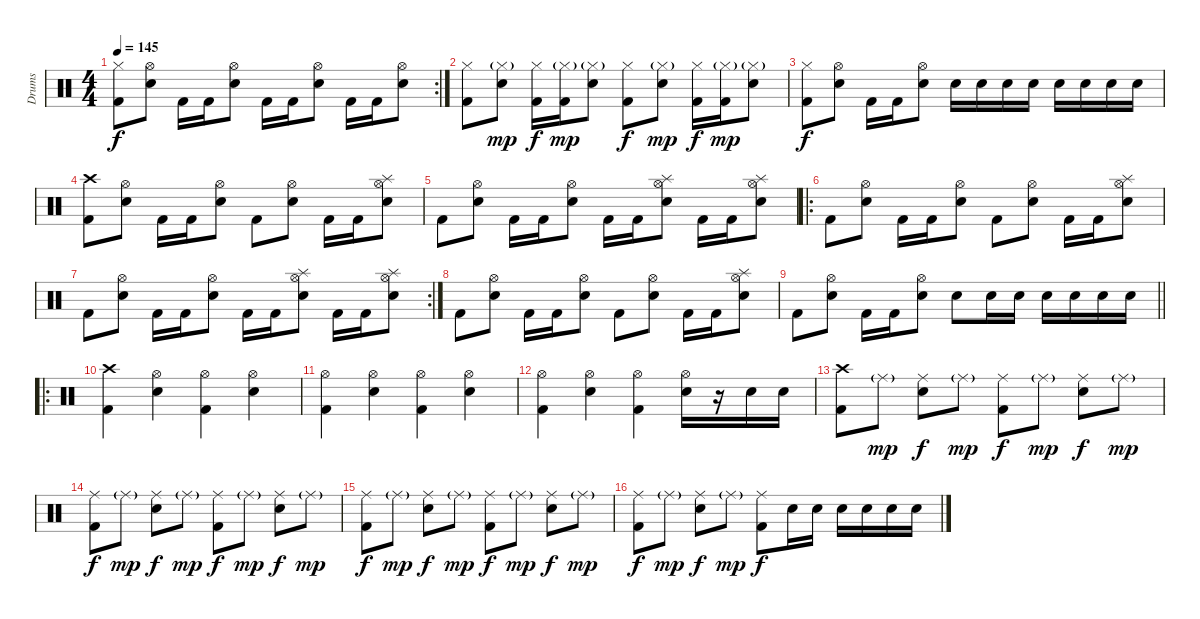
\track ("Drums" "Drums") {instrument percussion}
\staff {score}
\articulation defaults
\rc 2
\ts (4 4)
\tempo 145
\clef neutral
\ks c
("Kick (hit) 2" "Hi-Hat (closed)").8{dy f} ("Snare (hit) 2" "Hi-Hat (open)").8 "Kick (hit) 2".16 "Kick (hit) 2".16 ("Snare (hit) 2" "Hi-Hat (open)").8 "Kick (hit) 2".16 "Kick (hit) 2".16 ("Snare (hit) 2" "Hi-Hat (open)").8 "Kick (hit) 2".16 "Kick (hit) 2".16 ("Snare (hit) 2" "Hi-Hat (open)").8 |
("Kick (hit) 2" "Hi-Hat (closed)").8 ("Snare (hit) 2" "Hi-Hat (closed)"{g}).8{dy mp} ("Kick (hit) 2" "Hi-Hat (closed)").16{dy f} ("Kick (hit) 2" "Hi-Hat (closed)"{g}).16{dy mp} ("Snare (hit) 2" "Hi-Hat (closed)"{g}).8 ("Kick (hit) 2" "Hi-Hat (closed)").8{dy f} ("Snare (hit) 2" "Hi-Hat (closed)"{g}).8{dy mp} ("Kick (hit) 2" "Hi-Hat (closed)").16{dy f} ("Kick (hit) 2" "Hi-Hat (closed)"{g}).16{dy mp} ("Snare (hit) 2" "Hi-Hat (closed)"{g}).8 |
("Kick (hit) 2" "Hi-Hat (closed)").8{dy f} ("Snare (hit) 2" "Hi-Hat (open)").8 "Kick (hit) 2".16 "Kick (hit) 2".16 ("Snare (hit) 2" "Hi-Hat (open)").8 "Snare (hit) 2".16 "Snare (hit) 2".16 "Snare (hit) 2".16 "Snare (hit) 2".16 "Snare (hit) 2".16 "Snare (hit) 2".16 "Snare (hit) 2".16 "Snare (hit) 2".16 |
("Kick (hit) 2" "Crash high (hit)").8 ("Snare (hit) 2" "Hi-Hat (open)").8 "Kick (hit) 2".16 "Kick (hit) 2".16 ("Snare (hit) 2" "Hi-Hat (open)").8 "Kick (hit) 2".8 ("Snare (hit) 2" "Hi-Hat (open)").8 "Kick (hit) 2".16 "Kick (hit) 2".16 ("Snare (hit) 2" "Splash (hit)" "Hi-Hat (open)").8 |
"Kick (hit) 2".8 ("Snare (hit) 2" "Hi-Hat (open)").8 "Kick (hit) 2".16 "Kick (hit) 2".16 ("Snare (hit) 2" "Hi-Hat (open)").8 "Kick (hit) 2".16 "Kick (hit) 2".16 ("Snare (hit) 2" "Splash (hit)" "Hi-Hat (open)").8 "Kick (hit) 2".16 "Kick (hit) 2".16 ("Snare (hit) 2" "Splash (hit)" "Hi-Hat (open)").8 |
\ro "Kick (hit) 2".8
("Snare (hit) 2" "Hi-Hat (open)").8 "Kick (hit) 2".16 "Kick (hit) 2".16 ("Snare (hit) 2" "Hi-Hat (open)").8 "Kick (hit) 2".8 ("Snare (hit) 2" "Hi-Hat (open)").8 "Kick (hit) 2".16 "Kick (hit) 2".16 ("Snare (hit) 2" "Splash (hit)" "Hi-Hat (open)").8 |
\rc 2 "Kick (hit) 2".8
("Snare (hit) 2" "Hi-Hat (open)").8 "Kick (hit) 2".16 "Kick (hit) 2".16 ("Snare (hit) 2" "Hi-Hat (open)").8 "Kick (hit) 2".16 "Kick (hit) 2".16 ("Snare (hit) 2" "Splash (hit)" "Hi-Hat (open)").8 "Kick (hit) 2".16 "Kick (hit) 2".16 ("Snare (hit) 2" "Splash (hit)" "Hi-Hat (open)").8 |
"Kick (hit) 2".8 ("Snare (hit) 2" "Hi-Hat (open)").8 "Kick (hit) 2".16 "Kick (hit) 2".16 ("Snare (hit) 2" "Hi-Hat (open)").8 "Kick (hit) 2".8 ("Snare (hit) 2" "Hi-Hat (open)").8 "Kick (hit) 2".16 "Kick (hit) 2".16 ("Snare (hit) 2" "Splash (hit)" "Hi-Hat (open)").8 |
\barLineRight lightlight "Kick (hit) 2".8
("Snare (hit) 2" "Hi-Hat (open)").8 "Kick (hit) 2".16 "Kick (hit) 2".16 ("Snare (hit) 2" "Hi-Hat (open)").8 "Snare (hit) 2".8 "Snare (hit) 2".16 "Snare (hit) 2".16 "Snare (hit) 2".16 "Snare (hit) 2".16 "Snare (hit) 2".16 "Snare (hit) 2".16 |
\ro
\section ("" "")
("Kick (hit) 2" "Crash high (hit)").4 ("Snare (hit) 2" "Hi-Hat (open)").4 ("Kick (hit) 2" "Hi-Hat (open)").4 ("Snare (hit) 2" "Hi-Hat (open)").4 |
("Kick (hit) 2" "Hi-Hat (open)").4 ("Snare (hit) 2" "Hi-Hat (open)").4 ("Kick (hit) 2" "Hi-Hat (open)").4 ("Snare (hit) 2" "Hi-Hat (open)").4 |
("Kick (hit) 2" "Hi-Hat (open)").4 ("Snare (hit) 2" "Hi-Hat (open)").4 ("Kick (hit) 2" "Hi-Hat (open)").4 ("Snare (hit) 2" "Hi-Hat (open)").16 r.16 "Snare (hit) 2".16 "Snare (hit) 2".16 |
("Crash high (hit)" "Kick (hit) 2").8 "Ride (middle)"{g}.8{dy mp} ("Ride (middle)" "Snare (hit) 2").8{dy f} "Ride (middle)"{g}.8{dy mp} ("Ride (middle)" "Kick (hit) 2").8{dy f} "Ride (middle)"{g}.8{dy mp} ("Ride (middle)" "Snare (hit) 2").8{dy f} "Ride (middle)"{g}.8{dy mp} |
("Ride (middle)" "Kick (hit) 2").8{dy f} "Ride (middle)"{g}.8{dy mp} ("Ride (middle)" "Snare (hit) 2").8{dy f} "Ride (middle)"{g}.8{dy mp} ("Ride (middle)" "Kick (hit) 2").8{dy f} "Ride (middle)"{g}.8{dy mp} ("Ride (middle)" "Snare (hit) 2").8{dy f} "Ride (middle)"{g}.8{dy mp} |
("Ride (middle)" "Kick (hit) 2").8{dy f} "Ride (middle)"{g}.8{dy mp} ("Ride (middle)" "Snare (hit) 2").8{dy f} "Ride (middle)"{g}.8{dy mp} ("Ride (middle)" "Kick (hit) 2").8{dy f} "Ride (middle)"{g}.8{dy mp} ("Ride (middle)" "Snare (hit) 2").8{dy f} "Ride (middle)"{g}.8{dy mp} |
("Ride (middle)" "Kick (hit) 2").8{dy f} "Ride (middle)"{g}.8{dy mp} ("Ride (middle)" "Snare (hit) 2").8{dy f} "Ride (middle)"{g}.8{dy mp} ("Ride (middle)" "Kick (hit) 2").8{dy f} "Snare (hit) 2".16 "Snare (hit) 2".16 "Snare (hit) 2".16 "Snare (hit) 2".16 "Snare (hit) 2".16 "Snare (hit) 2".16
